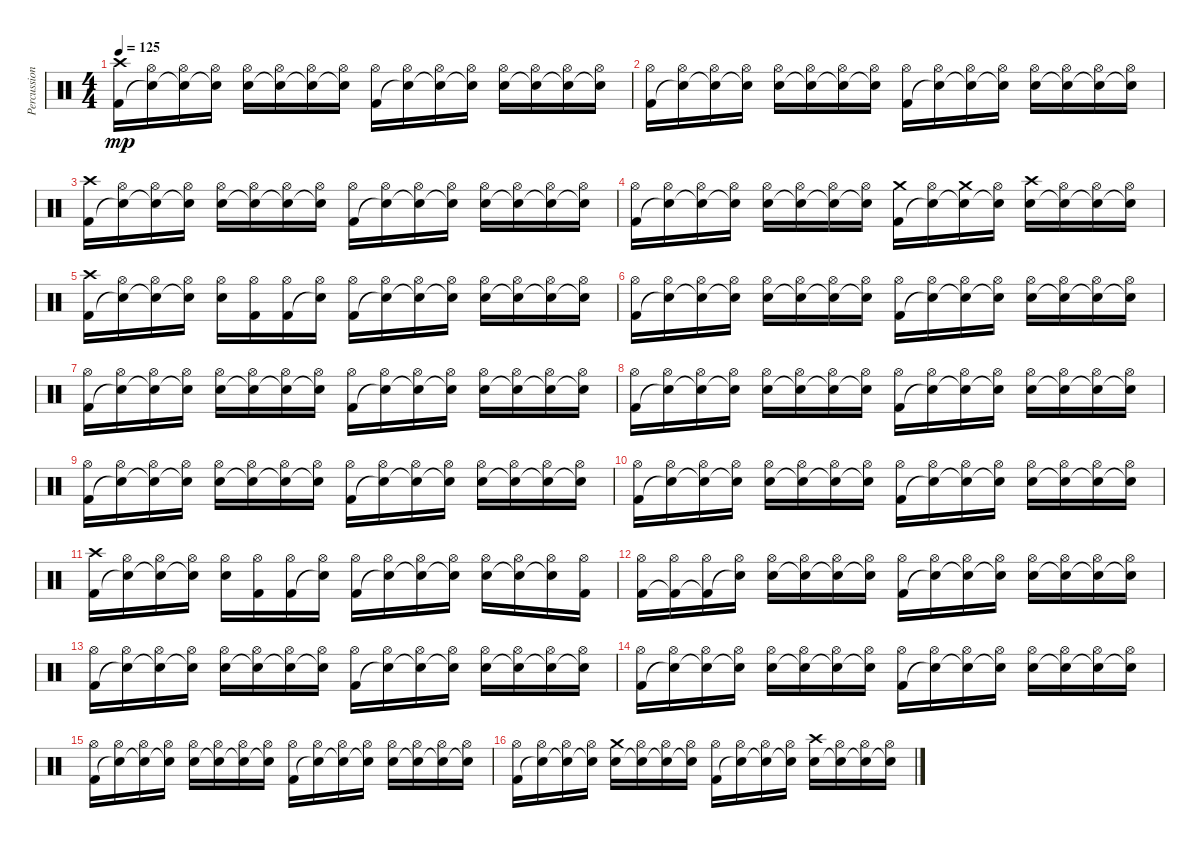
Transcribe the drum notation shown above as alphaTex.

\track ("Percussion" "Percussion") {instrument percussion}
\staff {score}
\articulation defaults
\ts (4 4)
\tempo 125
\clef neutral
\ks c
("Kick (hit) 2" "Crash high (hit)").16{dy mp} ("Snare (hit)"{t} "Hi-Hat (open)").16 ("Snare (hit)"{t} "Hi-Hat (open)").16 ("Snare (hit)"{t} "Hi-Hat (open)").16 ("Electric Snare (hit)" "Hi-Hat (open)").16 ("Snare (hit)"{t} "Hi-Hat (open)").16 ("Snare (hit)"{t} "Hi-Hat (open)").16 ("Snare (hit)"{t} "Hi-Hat (open)").16 ("Kick (hit) 2" "Hi-Hat (open)").16 ("Snare (hit)"{t} "Hi-Hat (open)").16 ("Snare (hit)"{t} "Hi-Hat (open)").16 ("Snare (hit)"{t} "Hi-Hat (open)").16 ("Electric Snare (hit)" "Hi-Hat (open)").16 ("Snare (hit)"{t} "Hi-Hat (open)").16 ("Snare (hit)"{t} "Hi-Hat (open)").16 ("Snare (hit)"{t} "Hi-Hat (open)").16 |
("Kick (hit) 2" "Hi-Hat (open)").16 ("Snare (hit)"{t} "Hi-Hat (open)").16 ("Snare (hit)"{t} "Hi-Hat (open)").16 ("Snare (hit)"{t} "Hi-Hat (open)").16 ("Electric Snare (hit)" "Hi-Hat (open)").16 ("Snare (hit)"{t} "Hi-Hat (open)").16 ("Snare (hit)"{t} "Hi-Hat (open)").16 ("Snare (hit)"{t} "Hi-Hat (open)").16 ("Kick (hit) 2" "Hi-Hat (open)").16 ("Snare (hit)"{t} "Hi-Hat (open)").16 ("Snare (hit)"{t} "Hi-Hat (open)").16 ("Snare (hit)"{t} "Hi-Hat (open)").16 ("Electric Snare (hit)" "Hi-Hat (open)").16 ("Snare (hit)"{t} "Hi-Hat (open)").16 ("Snare (hit)"{t} "Hi-Hat (open)").16 ("Snare (hit)"{t} "Hi-Hat (open)").16 |
("Kick (hit) 2" "Crash high (hit)").16 ("Snare (hit)"{t} "Hi-Hat (open)").16 ("Snare (hit)"{t} "Hi-Hat (open)").16 ("Snare (hit)"{t} "Hi-Hat (open)").16 ("Electric Snare (hit)" "Hi-Hat (open)").16 ("Snare (hit)"{t} "Hi-Hat (open)").16 ("Snare (hit)"{t} "Hi-Hat (open)").16 ("Snare (hit)"{t} "Hi-Hat (open)").16 ("Kick (hit) 2" "Hi-Hat (open)").16 ("Snare (hit)"{t} "Hi-Hat (open)").16 ("Snare (hit)"{t} "Hi-Hat (open)").16 ("Snare (hit)"{t} "Hi-Hat (open)").16 ("Electric Snare (hit)" "Hi-Hat (open)").16 ("Snare (hit)"{t} "Hi-Hat (open)").16 ("Snare (hit)"{t} "Hi-Hat (open)").16 ("Snare (hit)"{t} "Hi-Hat (open)").16 |
("Kick (hit) 2" "Hi-Hat (open)").16 ("Snare (hit)"{t} "Hi-Hat (open)").16 ("Snare (hit)"{t} "Hi-Hat (open)").16 ("Snare (hit)"{t} "Hi-Hat (open)").16 ("Electric Snare (hit)" "Hi-Hat (open)").16 ("Snare (hit)"{t} "Hi-Hat (open)").16 ("Snare (hit)"{t} "Hi-Hat (open)").16 ("Snare (hit)"{t} "Hi-Hat (open)").16 ("Kick (hit) 2" "Crash medium (hit)").16 ("Snare (hit)"{t} "Hi-Hat (open)").16 ("Snare (hit)"{t} "Crash medium (hit)").16 ("Snare (hit)"{t} "Hi-Hat (open)").16 ("Electric Snare (hit)" "Crash high (hit)").16 ("Snare (hit)"{t} "Hi-Hat (open)").16 ("Snare (hit)"{t} "Hi-Hat (open)").16 ("Snare (hit)"{t} "Hi-Hat (open)").16 |
("Kick (hit) 2" "Crash high (hit)").16 ("Snare (hit)"{t} "Hi-Hat (open)").16 ("Snare (hit)"{t} "Hi-Hat (open)").16 ("Snare (hit)"{t} "Hi-Hat (open)").16 ("Electric Snare (hit)" "Hi-Hat (open)").16 ("Kick (hit) 2" "Hi-Hat (open)").16 ("Kick (hit) 2" "Hi-Hat (open)").16 ("Snare (hit)"{t} "Hi-Hat (open)").16 ("Kick (hit) 2" "Hi-Hat (open)").16 ("Snare (hit)"{t} "Hi-Hat (open)").16 ("Snare (hit)"{t} "Hi-Hat (open)").16 ("Snare (hit)"{t} "Hi-Hat (open)").16 ("Electric Snare (hit)" "Hi-Hat (open)").16 ("Snare (hit)"{t} "Hi-Hat (open)").16 ("Snare (hit)"{t} "Hi-Hat (open)").16 ("Snare (hit)"{t} "Hi-Hat (open)").16 |
("Kick (hit) 2" "Hi-Hat (open)").16 ("Snare (hit)"{t} "Hi-Hat (open)").16 ("Snare (hit)"{t} "Hi-Hat (open)").16 ("Snare (hit)"{t} "Hi-Hat (open)").16 ("Electric Snare (hit)" "Hi-Hat (open)").16 ("Snare (hit)"{t} "Hi-Hat (open)").16 ("Snare (hit)"{t} "Hi-Hat (open)").16 ("Snare (hit)"{t} "Hi-Hat (open)").16 ("Kick (hit) 2" "Hi-Hat (open)").16 ("Snare (hit)"{t} "Hi-Hat (open)").16 ("Snare (hit)"{t} "Hi-Hat (open)").16 ("Snare (hit)"{t} "Hi-Hat (open)").16 ("Electric Snare (hit)" "Hi-Hat (open)").16 ("Snare (hit)"{t} "Hi-Hat (open)").16 ("Snare (hit)"{t} "Hi-Hat (open)").16 ("Snare (hit)"{t} "Hi-Hat (open)").16 |
("Kick (hit) 2" "Hi-Hat (open)").16 ("Snare (hit)"{t} "Hi-Hat (open)").16 ("Snare (hit)"{t} "Hi-Hat (open)").16 ("Snare (hit)"{t} "Hi-Hat (open)").16 ("Electric Snare (hit)" "Hi-Hat (open)").16 ("Snare (hit)"{t} "Hi-Hat (open)").16 ("Snare (hit)"{t} "Hi-Hat (open)").16 ("Snare (hit)"{t} "Hi-Hat (open)").16 ("Kick (hit) 2" "Hi-Hat (open)").16 ("Snare (hit)"{t} "Hi-Hat (open)").16 ("Snare (hit)"{t} "Hi-Hat (open)").16 ("Snare (hit)"{t} "Hi-Hat (open)").16 ("Electric Snare (hit)" "Hi-Hat (open)").16 ("Snare (hit)"{t} "Hi-Hat (open)").16 ("Snare (hit)"{t} "Hi-Hat (open)").16 ("Snare (hit)"{t} "Hi-Hat (open)").16 |
("Kick (hit) 2" "Hi-Hat (open)").16 ("Snare (hit)"{t} "Hi-Hat (open)").16 ("Snare (hit)"{t} "Hi-Hat (open)").16 ("Snare (hit)"{t} "Hi-Hat (open)").16 ("Electric Snare (hit)" "Hi-Hat (open)").16 ("Snare (hit)"{t} "Hi-Hat (open)").16 ("Snare (hit)"{t} "Hi-Hat (open)").16 ("Snare (hit)"{t} "Hi-Hat (open)").16 ("Kick (hit) 2" "Hi-Hat (open)").16 ("Snare (hit)"{t} "Hi-Hat (open)").16 ("Snare (hit)"{t} "Hi-Hat (open)").16 ("Snare (hit)"{t} "Hi-Hat (open)").16 ("Electric Snare (hit)" "Hi-Hat (open)").16 ("Snare (hit)"{t} "Hi-Hat (open)").16 ("Snare (hit)"{t} "Hi-Hat (open)").16 ("Snare (hit)"{t} "Hi-Hat (open)").16 |
("Kick (hit) 2" "Hi-Hat (open)").16 ("Snare (hit)"{t} "Hi-Hat (open)").16 ("Snare (hit)"{t} "Hi-Hat (open)").16 ("Snare (hit)"{t} "Hi-Hat (open)").16 ("Electric Snare (hit)" "Hi-Hat (open)").16 ("Snare (hit)"{t} "Hi-Hat (open)").16 ("Snare (hit)"{t} "Hi-Hat (open)").16 ("Snare (hit)"{t} "Hi-Hat (open)").16 ("Kick (hit) 2" "Hi-Hat (open)").16 ("Snare (hit)"{t} "Hi-Hat (open)").16 ("Snare (hit)"{t} "Hi-Hat (open)").16 ("Snare (hit)"{t} "Hi-Hat (open)").16 ("Electric Snare (hit)" "Hi-Hat (open)").16 ("Snare (hit)"{t} "Hi-Hat (open)").16 ("Snare (hit)"{t} "Hi-Hat (open)").16 ("Snare (hit)"{t} "Hi-Hat (open)").16 |
("Kick (hit) 2" "Hi-Hat (open)").16 ("Snare (hit)"{t} "Hi-Hat (open)").16 ("Snare (hit)"{t} "Hi-Hat (open)").16 ("Snare (hit)"{t} "Hi-Hat (open)").16 ("Electric Snare (hit)" "Hi-Hat (open)").16 ("Snare (hit)"{t} "Hi-Hat (open)").16 ("Snare (hit)"{t} "Hi-Hat (open)").16 ("Snare (hit)"{t} "Hi-Hat (open)").16 ("Kick (hit) 2" "Hi-Hat (open)").16 ("Snare (hit)"{t} "Hi-Hat (open)").16 ("Snare (hit)"{t} "Hi-Hat (open)").16 ("Snare (hit)"{t} "Hi-Hat (open)").16 ("Electric Snare (hit)" "Hi-Hat (open)").16 ("Snare (hit)"{t} "Hi-Hat (open)").16 ("Snare (hit)"{t} "Hi-Hat (open)").16 ("Snare (hit)"{t} "Hi-Hat (open)").16 |
("Kick (hit) 2" "Crash high (hit)").16 ("Snare (hit)"{t} "Hi-Hat (open)").16 ("Snare (hit)"{t} "Hi-Hat (open)").16 ("Snare (hit)"{t} "Hi-Hat (open)").16 ("Electric Snare (hit)" "Hi-Hat (open)").16 ("Kick (hit) 2" "Hi-Hat (open)").16 ("Kick (hit) 2" "Hi-Hat (open)").16 ("Snare (hit)"{t} "Hi-Hat (open)").16 ("Kick (hit) 2" "Hi-Hat (open)").16 ("Snare (hit)"{t} "Hi-Hat (open)").16 ("Snare (hit)"{t} "Hi-Hat (open)").16 ("Snare (hit)"{t} "Hi-Hat (open)").16 ("Electric Snare (hit)" "Hi-Hat (open)").16 ("Snare (hit)"{t} "Hi-Hat (open)").16 ("Snare (hit)"{t} "Hi-Hat (open)").16 ("Kick (hit) 2" "Hi-Hat (open)").16 |
("Kick (hit) 2" "Hi-Hat (open)").16 ("Kick (hit) 2"{t} "Hi-Hat (open)").16 ("Kick (hit) 2"{t} "Hi-Hat (open)").16 ("Snare (hit)"{t} "Hi-Hat (open)").16 ("Electric Snare (hit)" "Hi-Hat (open)").16 ("Snare (hit)"{t} "Hi-Hat (open)").16 ("Snare (hit)"{t} "Hi-Hat (open)").16 ("Snare (hit)"{t} "Hi-Hat (open)").16 ("Kick (hit) 2" "Hi-Hat (open)").16 ("Snare (hit)"{t} "Hi-Hat (open)").16 ("Snare (hit)"{t} "Hi-Hat (open)").16 ("Snare (hit)"{t} "Hi-Hat (open)").16 ("Electric Snare (hit)" "Hi-Hat (open)").16 ("Snare (hit)"{t} "Hi-Hat (open)").16 ("Snare (hit)"{t} "Hi-Hat (open)").16 ("Snare (hit)"{t} "Hi-Hat (open)").16 |
("Kick (hit) 2" "Hi-Hat (open)").16 ("Snare (hit)"{t} "Hi-Hat (open)").16 ("Snare (hit)"{t} "Hi-Hat (open)").16 ("Snare (hit)"{t} "Hi-Hat (open)").16 ("Electric Snare (hit)" "Hi-Hat (open)").16 ("Snare (hit)"{t} "Hi-Hat (open)").16 ("Snare (hit)"{t} "Hi-Hat (open)").16 ("Snare (hit)"{t} "Hi-Hat (open)").16 ("Kick (hit) 2" "Hi-Hat (open)").16 ("Snare (hit)"{t} "Hi-Hat (open)").16 ("Snare (hit)"{t} "Hi-Hat (open)").16 ("Snare (hit)"{t} "Hi-Hat (open)").16 ("Electric Snare (hit)" "Hi-Hat (open)").16 ("Snare (hit)"{t} "Hi-Hat (open)").16 ("Snare (hit)"{t} "Hi-Hat (open)").16 ("Snare (hit)"{t} "Hi-Hat (open)").16 |
("Kick (hit) 2" "Hi-Hat (open)").16 ("Snare (hit)"{t} "Hi-Hat (open)").16 ("Snare (hit)"{t} "Hi-Hat (open)").16 ("Snare (hit)"{t} "Hi-Hat (open)").16 ("Electric Snare (hit)" "Hi-Hat (open)").16 ("Snare (hit)"{t} "Hi-Hat (open)").16 ("Snare (hit)"{t} "Hi-Hat (open)").16 ("Snare (hit)"{t} "Hi-Hat (open)").16 ("Kick (hit) 2" "Hi-Hat (open)").16 ("Snare (hit)"{t} "Hi-Hat (open)").16 ("Snare (hit)"{t} "Hi-Hat (open)").16 ("Snare (hit)"{t} "Hi-Hat (open)").16 ("Electric Snare (hit)" "Hi-Hat (open)").16 ("Snare (hit)"{t} "Hi-Hat (open)").16 ("Snare (hit)"{t} "Hi-Hat (open)").16 ("Snare (hit)"{t} "Hi-Hat (open)").16 |
("Kick (hit) 2" "Hi-Hat (open)").16 ("Snare (hit)"{t} "Hi-Hat (open)").16 ("Snare (hit)"{t} "Hi-Hat (open)").16 ("Snare (hit)"{t} "Hi-Hat (open)").16 ("Electric Snare (hit)" "Hi-Hat (open)").16 ("Snare (hit)"{t} "Hi-Hat (open)").16 ("Snare (hit)"{t} "Hi-Hat (open)").16 ("Snare (hit)"{t} "Hi-Hat (open)").16 ("Kick (hit) 2" "Hi-Hat (open)").16 ("Snare (hit)"{t} "Hi-Hat (open)").16 ("Snare (hit)"{t} "Hi-Hat (open)").16 ("Snare (hit)"{t} "Hi-Hat (open)").16 ("Electric Snare (hit)" "Hi-Hat (open)").16 ("Snare (hit)"{t} "Hi-Hat (open)").16 ("Snare (hit)"{t} "Hi-Hat (open)").16 ("Snare (hit)"{t} "Hi-Hat (open)").16 |
("Kick (hit) 2" "Hi-Hat (open)").16 ("Snare (hit)"{t} "Hi-Hat (open)").16 ("Snare (hit)"{t} "Hi-Hat (open)").16 ("Snare (hit)"{t} "Hi-Hat (open)").16 ("Electric Snare (hit)" "Crash medium (hit)").16 ("Snare (hit)"{t} "Hi-Hat (open)").16 ("Snare (hit)"{t} "Hi-Hat (open)").16 ("Snare (hit)"{t} "Hi-Hat (open)").16 ("Kick (hit) 2" "Hi-Hat (open)").16 ("Snare (hit)"{t} "Hi-Hat (open)").16 ("Snare (hit)"{t} "Hi-Hat (open)").16 ("Snare (hit)"{t} "Hi-Hat (open)").16 ("Electric Snare (hit)" "Crash high (hit)").16 ("Snare (hit)"{t} "Hi-Hat (open)").16 ("Snare (hit)"{t} "Hi-Hat (open)").16 ("Snare (hit)"{t} "Hi-Hat (open)").16
